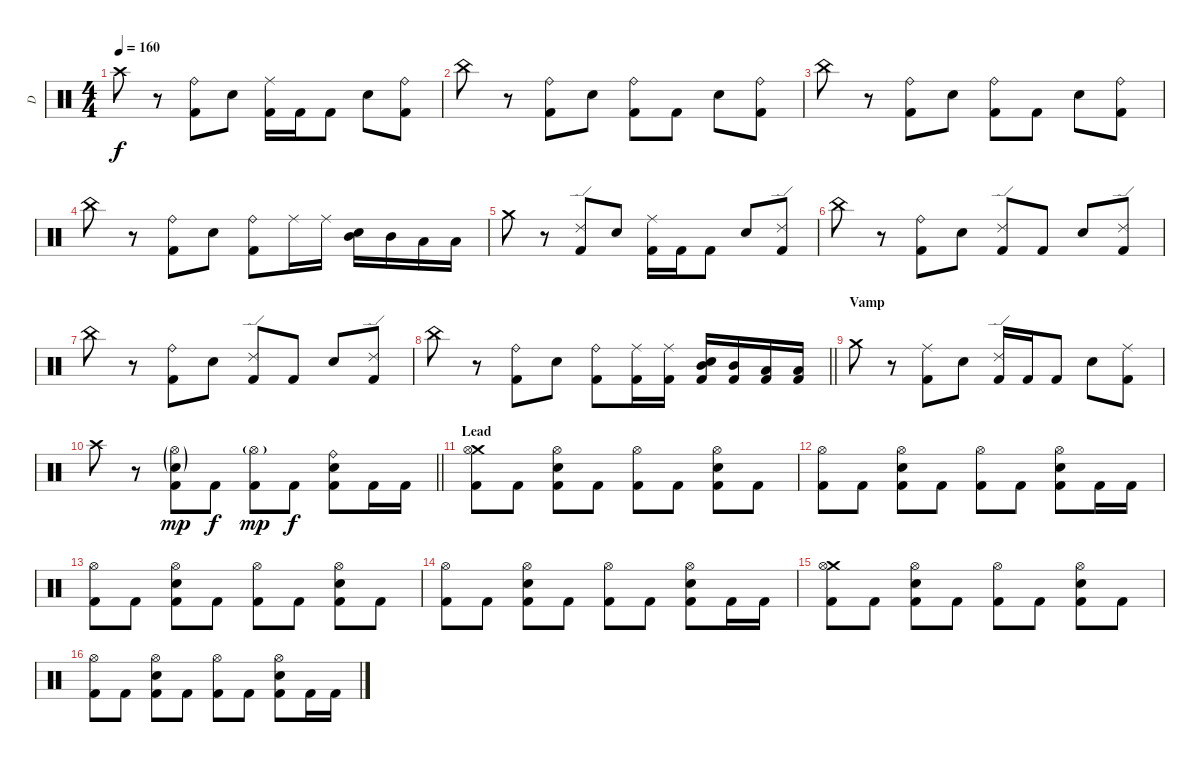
\track ("D" "D") {instrument percussion}
\staff {score}
\articulation defaults
\ts (4 4)
\tempo 160
\clef neutral
\ks c "Crash high (hit)".8{dy f}
r.8 ("Ride (bell)" "Kick (hit) 2").8 "Electric Snare (hit)".8 ("Ride (middle)" "Kick (hit) 2").16 "Kick (hit) 2".16 "Kick (hit) 2".8 "Electric Snare (hit)".8 ("Ride (bell)" "Kick (hit) 2").8 |
"China (hit)".8 r.8 ("Ride (bell)" "Kick (hit) 2").8 "Electric Snare (hit)".8 ("Ride (bell)" "Kick (hit) 2").8 "Kick (hit) 2".8 "Electric Snare (hit)".8 ("Ride (bell)" "Kick (hit) 2").8 |
"China (hit)".8 r.8 ("Ride (bell)" "Kick (hit) 2").8 "Electric Snare (hit)".8 ("Ride (bell)" "Kick (hit) 2").8 "Kick (hit) 2".8 "Electric Snare (hit)".8 ("Ride (bell)" "Kick (hit) 2").8 |
"China (hit)".8 r.8 ("Ride (bell)" "Kick (hit) 2").8 "Electric Snare (hit)".8 ("Ride (bell)" "Kick (hit) 2").8 "Ride (middle)".16 "Ride (middle)".16 ("Mid Tom (hit)" "Electric Snare (hit)").16 "Mid Tom (hit)".16 "Low Tom (hit)".16 "Low Tom (hit)".16 |
"Crash medium (hit)".8 r.8 ("Ride (edge) 2" "Kick (hit) 2").8 "Electric Snare (hit)".8 ("Ride (middle)" "Kick (hit) 2").16 "Kick (hit) 2".16 "Kick (hit) 2".8 "Electric Snare (hit)".8 ("Ride (edge) 2" "Kick (hit) 2").8 |
"China (hit)".8 r.8 ("Ride (bell)" "Kick (hit) 2").8 "Electric Snare (hit)".8 ("Ride (edge) 2" "Kick (hit) 2").8 "Kick (hit) 2".8 "Electric Snare (hit)".8 ("Ride (edge) 2" "Kick (hit) 2").8 |
"China (hit)".8 r.8 ("Ride (bell)" "Kick (hit) 2").8 "Electric Snare (hit)".8 ("Ride (edge) 2" "Kick (hit) 2").8 "Kick (hit) 2".8 "Electric Snare (hit)".8 ("Ride (edge) 2" "Kick (hit) 2").8 |
\barLineRight lightlight "China (hit)".8
r.8 ("Ride (bell)" "Kick (hit) 2").8 "Electric Snare (hit)".8 ("Ride (bell)" "Kick (hit) 2").8 ("Ride (middle)" "Kick (hit) 2").16 ("Ride (middle)" "Kick (hit) 2").16 ("Mid Tom (hit)" "Electric Snare (hit)" "Kick (hit) 2").16 ("Mid Tom (hit)" "Kick (hit) 2").16 ("Low Tom (hit)" "Kick (hit) 2").16 ("Low Tom (hit)" "Kick (hit) 2").16 |
\section ("" "Vamp")
"Crash medium (hit)".8 r.8 ("Ride (middle)" "Kick (hit) 2").8 "Electric Snare (hit)".8 ("Ride (edge) 2" "Kick (hit) 2").16 "Kick (hit) 2".16 "Kick (hit) 2".8 "Electric Snare (hit)".8 ("Ride (middle)" "Kick (hit) 2").8 |
\barLineRight lightlight "Crash high (hit)".8
r.8 ("Hi-Hat (open)"{g} "Electric Snare (hit)"{g} "Kick (hit) 2").8{dy mp} "Kick (hit) 2".8{dy f} ("Hi-Hat (open)"{g} "Kick (hit) 2").8{dy mp} "Kick (hit) 2".8{dy f} ("Ride (bell)" "Electric Snare (hit)" "Kick (hit) 2").8 "Kick (hit) 2".16 "Kick (hit) 2".16 |
\section ("" "Lead")
("Crash medium (hit)" "Hi-Hat (open)" "Kick (hit) 2").8 "Kick (hit) 2".8 ("Hi-Hat (open)" "Electric Snare (hit)" "Kick (hit) 2").8 "Kick (hit) 2".8 ("Hi-Hat (open)" "Kick (hit) 2").8 "Kick (hit) 2".8 ("Hi-Hat (open)" "Electric Snare (hit)" "Kick (hit) 2").8 "Kick (hit) 2".8 |
("Hi-Hat (open)" "Kick (hit) 2").8 "Kick (hit) 2".8 ("Hi-Hat (open)" "Electric Snare (hit)" "Kick (hit) 2").8 "Kick (hit) 2".8 ("Hi-Hat (open)" "Kick (hit) 2").8 "Kick (hit) 2".8 ("Hi-Hat (open)" "Electric Snare (hit)" "Kick (hit) 2").8 "Kick (hit) 2".16 "Kick (hit) 2".16 |
("Hi-Hat (open)" "Kick (hit) 2").8 "Kick (hit) 2".8 ("Hi-Hat (open)" "Electric Snare (hit)" "Kick (hit) 2").8 "Kick (hit) 2".8 ("Hi-Hat (open)" "Kick (hit) 2").8 "Kick (hit) 2".8 ("Hi-Hat (open)" "Electric Snare (hit)" "Kick (hit) 2").8 "Kick (hit) 2".8 |
("Hi-Hat (open)" "Kick (hit) 2").8 "Kick (hit) 2".8 ("Hi-Hat (open)" "Electric Snare (hit)" "Kick (hit) 2").8 "Kick (hit) 2".8 ("Hi-Hat (open)" "Kick (hit) 2").8 "Kick (hit) 2".8 ("Hi-Hat (open)" "Electric Snare (hit)" "Kick (hit) 2").8 "Kick (hit) 2".16 "Kick (hit) 2".16 |
("Crash medium (hit)" "Hi-Hat (open)" "Kick (hit) 2").8 "Kick (hit) 2".8 ("Hi-Hat (open)" "Electric Snare (hit)" "Kick (hit) 2").8 "Kick (hit) 2".8 ("Hi-Hat (open)" "Kick (hit) 2").8 "Kick (hit) 2".8 ("Hi-Hat (open)" "Electric Snare (hit)" "Kick (hit) 2").8 "Kick (hit) 2".8 |
("Hi-Hat (open)" "Kick (hit) 2").8 "Kick (hit) 2".8 ("Hi-Hat (open)" "Electric Snare (hit)" "Kick (hit) 2").8 "Kick (hit) 2".8 ("Hi-Hat (open)" "Kick (hit) 2").8 "Kick (hit) 2".8 ("Hi-Hat (open)" "Electric Snare (hit)" "Kick (hit) 2").8 "Kick (hit) 2".16 "Kick (hit) 2".16
